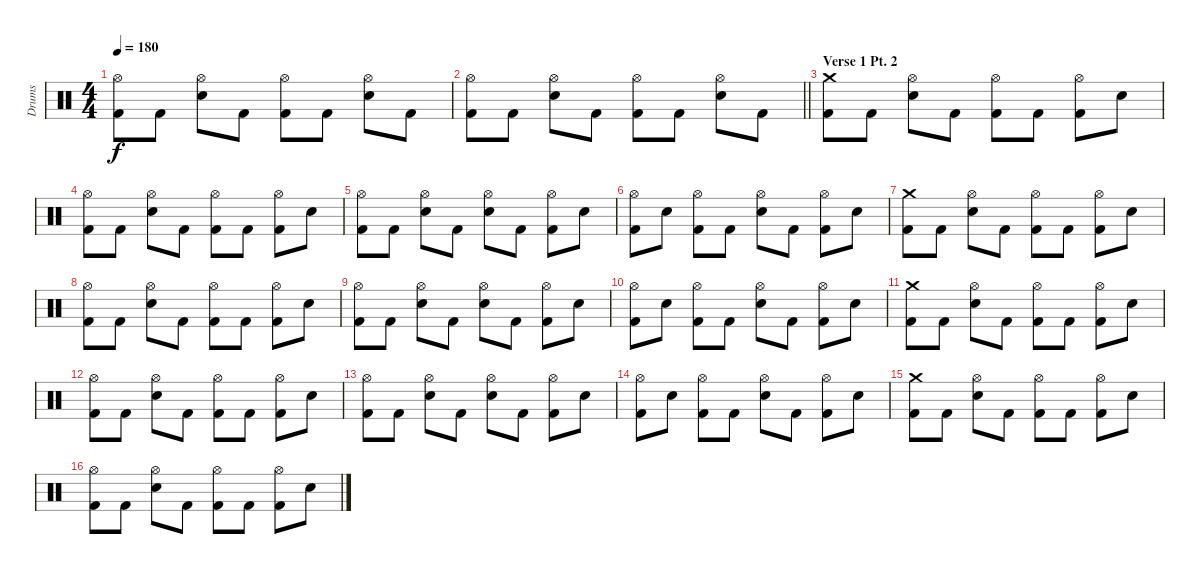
\track ("Drums" "Drums") {instrument percussion}
\staff {score}
\articulation defaults
\ts (4 4)
\tempo 180
\clef neutral
\ks c
("Hi-Hat (open)" "Kick (hit) 2").8{dy f} "Kick (hit) 2".8 ("Hi-Hat (open)" "Electric Snare (hit)").8 "Kick (hit) 2".8 ("Hi-Hat (open)" "Kick (hit) 2").8 "Kick (hit) 2".8 ("Hi-Hat (open)" "Electric Snare (hit)").8 "Kick (hit) 2".8 |
\barLineRight lightlight
("Hi-Hat (open)" "Kick (hit) 2").8 "Kick (hit) 2".8 ("Hi-Hat (open)" "Electric Snare (hit)").8 "Kick (hit) 2".8 ("Hi-Hat (open)" "Kick (hit) 2").8 "Kick (hit) 2".8 ("Hi-Hat (open)" "Electric Snare (hit)").8 "Kick (hit) 2".8 |
\section ("" "Verse 1 Pt. 2")
("Crash medium (hit)" "Kick (hit) 2").8 "Kick (hit) 2".8 ("Hi-Hat (open)" "Electric Snare (hit)").8 "Kick (hit) 2".8 ("Hi-Hat (open)" "Kick (hit) 2").8 "Kick (hit) 2".8 ("Hi-Hat (open)" "Kick (hit) 2").8 "Electric Snare (hit)".8 |
("Hi-Hat (open)" "Kick (hit) 2").8 "Kick (hit) 2".8 ("Hi-Hat (open)" "Electric Snare (hit)").8 "Kick (hit) 2".8 ("Hi-Hat (open)" "Kick (hit) 2").8 "Kick (hit) 2".8 ("Hi-Hat (open)" "Kick (hit) 2").8 "Electric Snare (hit)".8 |
("Hi-Hat (open)" "Kick (hit) 2").8 "Kick (hit) 2".8 ("Hi-Hat (open)" "Electric Snare (hit)").8 "Kick (hit) 2".8 ("Hi-Hat (open)" "Electric Snare (hit)").8 "Kick (hit) 2".8 ("Hi-Hat (open)" "Kick (hit) 2").8 "Electric Snare (hit)".8 |
("Hi-Hat (open)" "Kick (hit) 2").8 "Electric Snare (hit)".8 ("Hi-Hat (open)" "Kick (hit) 2").8 "Kick (hit) 2".8 ("Hi-Hat (open)" "Electric Snare (hit)").8 "Kick (hit) 2".8 ("Hi-Hat (open)" "Kick (hit) 2").8 "Electric Snare (hit)".8 |
("Crash medium (hit)" "Kick (hit) 2").8 "Kick (hit) 2".8 ("Hi-Hat (open)" "Electric Snare (hit)").8 "Kick (hit) 2".8 ("Hi-Hat (open)" "Kick (hit) 2").8 "Kick (hit) 2".8 ("Hi-Hat (open)" "Kick (hit) 2").8 "Electric Snare (hit)".8 |
("Hi-Hat (open)" "Kick (hit) 2").8 "Kick (hit) 2".8 ("Hi-Hat (open)" "Electric Snare (hit)").8 "Kick (hit) 2".8 ("Hi-Hat (open)" "Kick (hit) 2").8 "Kick (hit) 2".8 ("Hi-Hat (open)" "Kick (hit) 2").8 "Electric Snare (hit)".8 |
("Hi-Hat (open)" "Kick (hit) 2").8 "Kick (hit) 2".8 ("Hi-Hat (open)" "Electric Snare (hit)").8 "Kick (hit) 2".8 ("Hi-Hat (open)" "Electric Snare (hit)").8 "Kick (hit) 2".8 ("Hi-Hat (open)" "Kick (hit) 2").8 "Electric Snare (hit)".8 |
("Hi-Hat (open)" "Kick (hit) 2").8 "Electric Snare (hit)".8 ("Hi-Hat (open)" "Kick (hit) 2").8 "Kick (hit) 2".8 ("Hi-Hat (open)" "Electric Snare (hit)").8 "Kick (hit) 2".8 ("Hi-Hat (open)" "Kick (hit) 2").8 "Electric Snare (hit)".8 |
("Crash medium (hit)" "Kick (hit) 2").8 "Kick (hit) 2".8 ("Hi-Hat (open)" "Electric Snare (hit)").8 "Kick (hit) 2".8 ("Hi-Hat (open)" "Kick (hit) 2").8 "Kick (hit) 2".8 ("Hi-Hat (open)" "Kick (hit) 2").8 "Electric Snare (hit)".8 |
("Hi-Hat (open)" "Kick (hit) 2").8 "Kick (hit) 2".8 ("Hi-Hat (open)" "Electric Snare (hit)").8 "Kick (hit) 2".8 ("Hi-Hat (open)" "Kick (hit) 2").8 "Kick (hit) 2".8 ("Hi-Hat (open)" "Kick (hit) 2").8 "Electric Snare (hit)".8 |
("Hi-Hat (open)" "Kick (hit) 2").8 "Kick (hit) 2".8 ("Hi-Hat (open)" "Electric Snare (hit)").8 "Kick (hit) 2".8 ("Hi-Hat (open)" "Electric Snare (hit)").8 "Kick (hit) 2".8 ("Hi-Hat (open)" "Kick (hit) 2").8 "Electric Snare (hit)".8 |
("Hi-Hat (open)" "Kick (hit) 2").8 "Electric Snare (hit)".8 ("Hi-Hat (open)" "Kick (hit) 2").8 "Kick (hit) 2".8 ("Hi-Hat (open)" "Electric Snare (hit)").8 "Kick (hit) 2".8 ("Hi-Hat (open)" "Kick (hit) 2").8 "Electric Snare (hit)".8 |
("Crash medium (hit)" "Kick (hit) 2").8 "Kick (hit) 2".8 ("Hi-Hat (open)" "Electric Snare (hit)").8 "Kick (hit) 2".8 ("Hi-Hat (open)" "Kick (hit) 2").8 "Kick (hit) 2".8 ("Hi-Hat (open)" "Kick (hit) 2").8 "Electric Snare (hit)".8 |
("Hi-Hat (open)" "Kick (hit) 2").8 "Kick (hit) 2".8 ("Hi-Hat (open)" "Electric Snare (hit)").8 "Kick (hit) 2".8 ("Hi-Hat (open)" "Kick (hit) 2").8 "Kick (hit) 2".8 ("Hi-Hat (open)" "Kick (hit) 2").8 "Electric Snare (hit)".8
